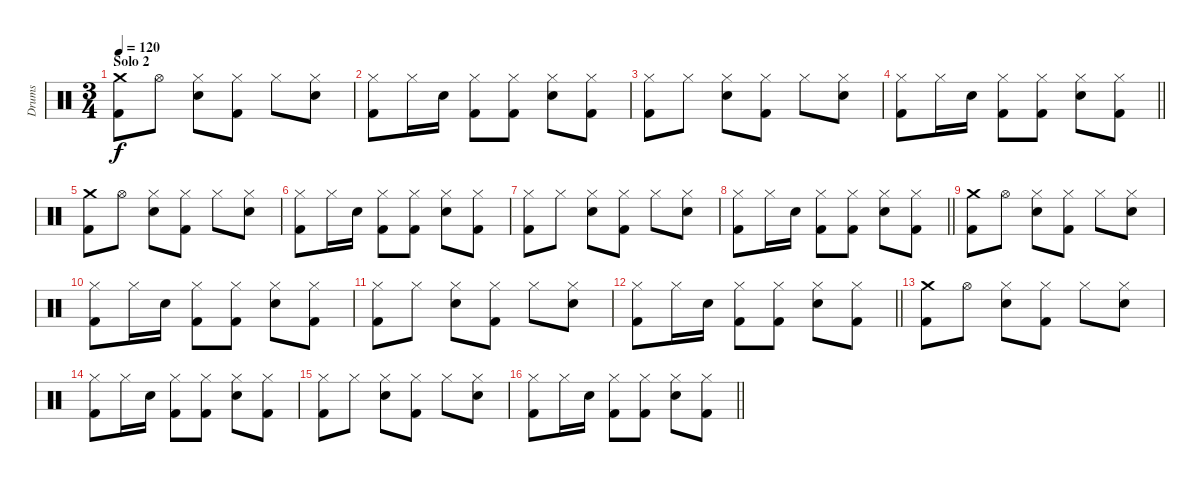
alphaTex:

\track ("Drums" "Drums") {instrument percussion}
\staff {score}
\articulation defaults
\ts (3 4)
\section ("" "Solo 2")
\tempo 120
\clef neutral
\ks c
("Kick (hit) 2" "Crash medium (hit)").8{dy f} "Hi-Hat (open)".8 ("Electric Snare (hit)" "Hi-Hat (closed)").8 ("Kick (hit) 2" "Hi-Hat (closed)").8 "Hi-Hat (closed)".8 ("Electric Snare (hit)" "Hi-Hat (closed)").8 |
("Kick (hit) 2" "Hi-Hat (closed)").8 "Hi-Hat (closed)".16 "Electric Snare (hit)".16 ("Kick (hit) 2" "Hi-Hat (closed)").8 ("Kick (hit) 2" "Hi-Hat (closed)").8 ("Electric Snare (hit)" "Hi-Hat (closed)").8 ("Kick (hit) 2" "Hi-Hat (closed)").8 |
("Kick (hit) 2" "Hi-Hat (closed)").8 "Hi-Hat (closed)".8 ("Electric Snare (hit)" "Hi-Hat (closed)").8 ("Kick (hit) 2" "Hi-Hat (closed)").8 "Hi-Hat (closed)".8 ("Electric Snare (hit)" "Hi-Hat (closed)").8 |
\barLineRight lightlight
("Kick (hit) 2" "Hi-Hat (closed)").8 "Hi-Hat (closed)".16 "Electric Snare (hit)".16 ("Kick (hit) 2" "Hi-Hat (closed)").8 ("Kick (hit) 2" "Hi-Hat (closed)").8 ("Electric Snare (hit)" "Hi-Hat (closed)").8 ("Kick (hit) 2" "Hi-Hat (closed)").8 |
("Kick (hit) 2" "Crash medium (hit)").8 "Hi-Hat (open)".8 ("Electric Snare (hit)" "Hi-Hat (closed)").8 ("Kick (hit) 2" "Hi-Hat (closed)").8 "Hi-Hat (closed)".8 ("Electric Snare (hit)" "Hi-Hat (closed)").8 |
("Kick (hit) 2" "Hi-Hat (closed)").8 "Hi-Hat (closed)".16 "Electric Snare (hit)".16 ("Kick (hit) 2" "Hi-Hat (closed)").8 ("Kick (hit) 2" "Hi-Hat (closed)").8 ("Electric Snare (hit)" "Hi-Hat (closed)").8 ("Kick (hit) 2" "Hi-Hat (closed)").8 |
("Kick (hit) 2" "Hi-Hat (closed)").8 "Hi-Hat (closed)".8 ("Electric Snare (hit)" "Hi-Hat (closed)").8 ("Kick (hit) 2" "Hi-Hat (closed)").8 "Hi-Hat (closed)".8 ("Electric Snare (hit)" "Hi-Hat (closed)").8 |
\barLineRight lightlight
("Kick (hit) 2" "Hi-Hat (closed)").8 "Hi-Hat (closed)".16 "Electric Snare (hit)".16 ("Kick (hit) 2" "Hi-Hat (closed)").8 ("Kick (hit) 2" "Hi-Hat (closed)").8 ("Electric Snare (hit)" "Hi-Hat (closed)").8 ("Kick (hit) 2" "Hi-Hat (closed)").8 |
("Kick (hit) 2" "Crash medium (hit)").8 "Hi-Hat (open)".8 ("Electric Snare (hit)" "Hi-Hat (closed)").8 ("Kick (hit) 2" "Hi-Hat (closed)").8 "Hi-Hat (closed)".8 ("Electric Snare (hit)" "Hi-Hat (closed)").8 |
("Kick (hit) 2" "Hi-Hat (closed)").8 "Hi-Hat (closed)".16 "Electric Snare (hit)".16 ("Kick (hit) 2" "Hi-Hat (closed)").8 ("Kick (hit) 2" "Hi-Hat (closed)").8 ("Electric Snare (hit)" "Hi-Hat (closed)").8 ("Kick (hit) 2" "Hi-Hat (closed)").8 |
("Kick (hit) 2" "Hi-Hat (closed)").8 "Hi-Hat (closed)".8 ("Electric Snare (hit)" "Hi-Hat (closed)").8 ("Kick (hit) 2" "Hi-Hat (closed)").8 "Hi-Hat (closed)".8 ("Electric Snare (hit)" "Hi-Hat (closed)").8 |
\barLineRight lightlight
("Kick (hit) 2" "Hi-Hat (closed)").8 "Hi-Hat (closed)".16 "Electric Snare (hit)".16 ("Kick (hit) 2" "Hi-Hat (closed)").8 ("Kick (hit) 2" "Hi-Hat (closed)").8 ("Electric Snare (hit)" "Hi-Hat (closed)").8 ("Kick (hit) 2" "Hi-Hat (closed)").8 |
("Kick (hit) 2" "Crash medium (hit)").8 "Hi-Hat (open)".8 ("Electric Snare (hit)" "Hi-Hat (closed)").8 ("Kick (hit) 2" "Hi-Hat (closed)").8 "Hi-Hat (closed)".8 ("Electric Snare (hit)" "Hi-Hat (closed)").8 |
("Kick (hit) 2" "Hi-Hat (closed)").8 "Hi-Hat (closed)".16 "Electric Snare (hit)".16 ("Kick (hit) 2" "Hi-Hat (closed)").8 ("Kick (hit) 2" "Hi-Hat (closed)").8 ("Electric Snare (hit)" "Hi-Hat (closed)").8 ("Kick (hit) 2" "Hi-Hat (closed)").8 |
("Kick (hit) 2" "Hi-Hat (closed)").8 "Hi-Hat (closed)".8 ("Electric Snare (hit)" "Hi-Hat (closed)").8 ("Kick (hit) 2" "Hi-Hat (closed)").8 "Hi-Hat (closed)".8 ("Electric Snare (hit)" "Hi-Hat (closed)").8 |
\barLineRight lightlight
("Kick (hit) 2" "Hi-Hat (closed)").8 "Hi-Hat (closed)".16 "Electric Snare (hit)".16 ("Kick (hit) 2" "Hi-Hat (closed)").8 ("Kick (hit) 2" "Hi-Hat (closed)").8 ("Electric Snare (hit)" "Hi-Hat (closed)").8 ("Kick (hit) 2" "Hi-Hat (closed)").8
